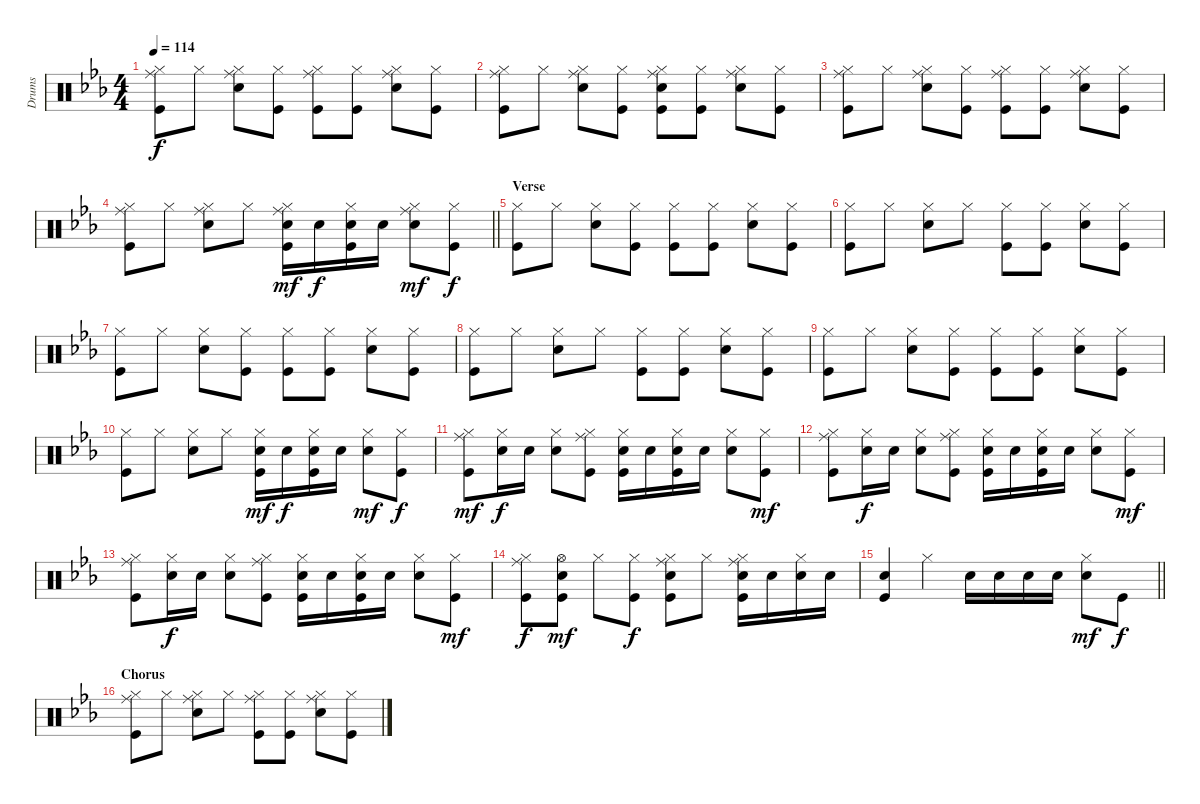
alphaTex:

\track ("Drums" "Drums") {instrument percussion}
\staff {score}
\articulation defaults
\ts (4 4)
\tempo 114
\clef neutral
\ks eb
("Hi-Hat (closed)" "Ride (middle)" "Kick (hit)").8{dy f} "Hi-Hat (closed)".8 ("Hi-Hat (closed)" "Ride (middle)" "Snare (hit) 2").8 ("Hi-Hat (closed)" "Kick (hit)").8 ("Hi-Hat (closed)" "Ride (middle)" "Kick (hit)").8 ("Hi-Hat (closed)" "Kick (hit)").8 ("Hi-Hat (closed)" "Ride (middle)" "Snare (hit) 2").8 ("Hi-Hat (closed)" "Kick (hit)").8 |
("Hi-Hat (closed)" "Ride (middle)" "Kick (hit)").8 "Hi-Hat (closed)".8 ("Hi-Hat (closed)" "Ride (middle)" "Snare (hit) 2").8 ("Hi-Hat (closed)" "Kick (hit)").8 ("Hi-Hat (closed)" "Ride (middle)" "Snare (hit) 2" "Kick (hit)").8 ("Hi-Hat (closed)" "Kick (hit)").8 ("Hi-Hat (closed)" "Ride (middle)" "Snare (hit) 2").8 ("Hi-Hat (closed)" "Kick (hit)").8 |
("Hi-Hat (closed)" "Ride (middle)" "Kick (hit)").8 "Hi-Hat (closed)".8 ("Hi-Hat (closed)" "Ride (middle)" "Snare (hit) 2").8 ("Hi-Hat (closed)" "Kick (hit)").8 ("Hi-Hat (closed)" "Ride (middle)" "Kick (hit)").8 ("Hi-Hat (closed)" "Kick (hit)").8 ("Hi-Hat (closed)" "Ride (middle)" "Snare (hit) 2").8 ("Hi-Hat (closed)" "Kick (hit)").8 |
\barLineRight lightlight
("Hi-Hat (closed)" "Ride (middle)" "Kick (hit)").8 "Hi-Hat (closed)".8 ("Hi-Hat (closed)" "Ride (middle)" "Snare (hit) 2").8 "Hi-Hat (closed)".8 ("Hi-Hat (closed)" "Ride (middle)" "Snare (hit) 2" "Kick (hit)").16{dy mf} "Snare (hit) 2".16{dy f} ("Hi-Hat (closed)" "Snare (hit) 2" "Kick (hit)").16 "Snare (hit) 2".16 ("Hi-Hat (closed)" "Ride (middle)" "Snare (hit) 2").8{dy mf} ("Hi-Hat (closed)" "Kick (hit)").8{dy f} |
\section ("" "Verse")
("Hi-Hat (closed)" "Kick (hit)").8 "Hi-Hat (closed)".8 ("Hi-Hat (closed)" "Snare (hit) 2").8 ("Hi-Hat (closed)" "Kick (hit)").8 ("Hi-Hat (closed)" "Kick (hit)").8 ("Hi-Hat (closed)" "Kick (hit)").8 ("Hi-Hat (closed)" "Snare (hit) 2").8 ("Hi-Hat (closed)" "Kick (hit)").8 |
("Hi-Hat (closed)" "Kick (hit)").8 "Hi-Hat (closed)".8 ("Hi-Hat (closed)" "Snare (hit) 2").8 "Hi-Hat (closed)".8 ("Hi-Hat (closed)" "Kick (hit)").8 ("Hi-Hat (closed)" "Kick (hit)").8 ("Hi-Hat (closed)" "Snare (hit) 2").8 ("Hi-Hat (closed)" "Kick (hit)").8 |
("Hi-Hat (closed)" "Kick (hit)").8 "Hi-Hat (closed)".8 ("Hi-Hat (closed)" "Snare (hit) 2").8 ("Hi-Hat (closed)" "Kick (hit)").8 ("Hi-Hat (closed)" "Kick (hit)").8 ("Hi-Hat (closed)" "Kick (hit)").8 ("Hi-Hat (closed)" "Snare (hit) 2").8 ("Hi-Hat (closed)" "Kick (hit)").8 |
("Hi-Hat (closed)" "Kick (hit)").8 "Hi-Hat (closed)".8 ("Hi-Hat (closed)" "Snare (hit) 2").8 "Hi-Hat (closed)".8 ("Hi-Hat (closed)" "Kick (hit)").8 ("Hi-Hat (closed)" "Kick (hit)").8 ("Hi-Hat (closed)" "Snare (hit) 2").8 ("Hi-Hat (closed)" "Kick (hit)").8 |
("Hi-Hat (closed)" "Kick (hit)").8 "Hi-Hat (closed)".8 ("Hi-Hat (closed)" "Snare (hit) 2").8 ("Hi-Hat (closed)" "Kick (hit)").8 ("Hi-Hat (closed)" "Kick (hit)").8 ("Hi-Hat (closed)" "Kick (hit)").8 ("Hi-Hat (closed)" "Snare (hit) 2").8 ("Hi-Hat (closed)" "Kick (hit)").8 |
("Hi-Hat (closed)" "Kick (hit)").8 "Hi-Hat (closed)".8 ("Hi-Hat (closed)" "Snare (hit) 2").8 "Hi-Hat (closed)".8 ("Hi-Hat (closed)" "Snare (hit) 2" "Kick (hit)").16{dy mf} "Snare (hit) 2".16{dy f} ("Hi-Hat (closed)" "Snare (hit) 2" "Kick (hit)").16 "Snare (hit) 2".16 ("Hi-Hat (closed)" "Snare (hit) 2").8{dy mf} ("Hi-Hat (closed)" "Kick (hit)").8{dy f} |
("Hi-Hat (closed)" "Ride (middle)" "Kick (hit)").8{dy mf} ("Hi-Hat (closed)" "Snare (hit) 2").16{dy f} "Snare (hit) 2".16 ("Hi-Hat (closed)" "Snare (hit) 2").8 ("Hi-Hat (closed)" "Ride (middle)" "Kick (hit)").8 ("Hi-Hat (closed)" "Snare (hit) 2" "Kick (hit)").16 "Snare (hit) 2".16 ("Hi-Hat (closed)" "Snare (hit) 2" "Kick (hit)").16 "Snare (hit) 2".16 ("Hi-Hat (closed)" "Snare (hit) 2").8 ("Hi-Hat (closed)" "Kick (hit)").8{dy mf} |
("Hi-Hat (closed)" "Ride (middle)" "Kick (hit)").8 ("Hi-Hat (closed)" "Snare (hit) 2").16{dy f} "Snare (hit) 2".16 ("Hi-Hat (closed)" "Snare (hit) 2").8 ("Hi-Hat (closed)" "Ride (middle)" "Kick (hit)").8 ("Hi-Hat (closed)" "Snare (hit) 2" "Kick (hit)").16 "Snare (hit) 2".16 ("Hi-Hat (closed)" "Snare (hit) 2" "Kick (hit)").16 "Snare (hit) 2".16 ("Hi-Hat (closed)" "Snare (hit) 2").8 ("Hi-Hat (closed)" "Kick (hit)").8{dy mf} |
("Hi-Hat (closed)" "Ride (middle)" "Kick (hit)").8 ("Hi-Hat (closed)" "Snare (hit) 2").16{dy f} "Snare (hit) 2".16 ("Hi-Hat (closed)" "Snare (hit) 2").8 ("Hi-Hat (closed)" "Ride (middle)" "Kick (hit)").8 ("Hi-Hat (closed)" "Snare (hit) 2" "Kick (hit)").16 "Snare (hit) 2".16 ("Hi-Hat (closed)" "Snare (hit) 2" "Kick (hit)").16 "Snare (hit) 2".16 ("Hi-Hat (closed)" "Snare (hit) 2").8 ("Hi-Hat (closed)" "Kick (hit)").8{dy mf} |
("Hi-Hat (closed)" "Ride (middle)" "Kick (hit)").8{dy f} ("Hi-Hat (open)" "Snare (hit) 2" "Kick (hit)").8{dy mf} "Hi-Hat (closed)".8 ("Hi-Hat (closed)" "Kick (hit)").8{dy f} ("Hi-Hat (closed)" "Ride (middle)" "Snare (hit) 2" "Kick (hit)").8 "Hi-Hat (closed)".8 ("Hi-Hat (closed)" "Ride (middle)" "Snare (hit) 2" "Kick (hit)").16 "Snare (hit) 2".16 ("Hi-Hat (closed)" "Snare (hit) 2").16 "Snare (hit) 2".16 |
\barLineRight lightlight
("Snare (hit) 2" "Kick (hit)").4 "Hi-Hat (closed)".4 "Snare (hit) 2".16 "Snare (hit) 2".16 "Snare (hit) 2".16 "Snare (hit) 2".16 ("Hi-Hat (closed)" "Snare (hit) 2").8{dy mf} "Kick (hit)".8{dy f} |
\section ("" "Chorus")
("Hi-Hat (closed)" "Ride (middle)" "Kick (hit)").8 "Hi-Hat (closed)".8 ("Hi-Hat (closed)" "Ride (middle)" "Snare (hit) 2").8 "Hi-Hat (closed)".8 ("Hi-Hat (closed)" "Ride (middle)" "Kick (hit)").8 ("Hi-Hat (closed)" "Kick (hit)").8 ("Hi-Hat (closed)" "Ride (middle)" "Snare (hit) 2").8 ("Hi-Hat (closed)" "Kick (hit)").8
